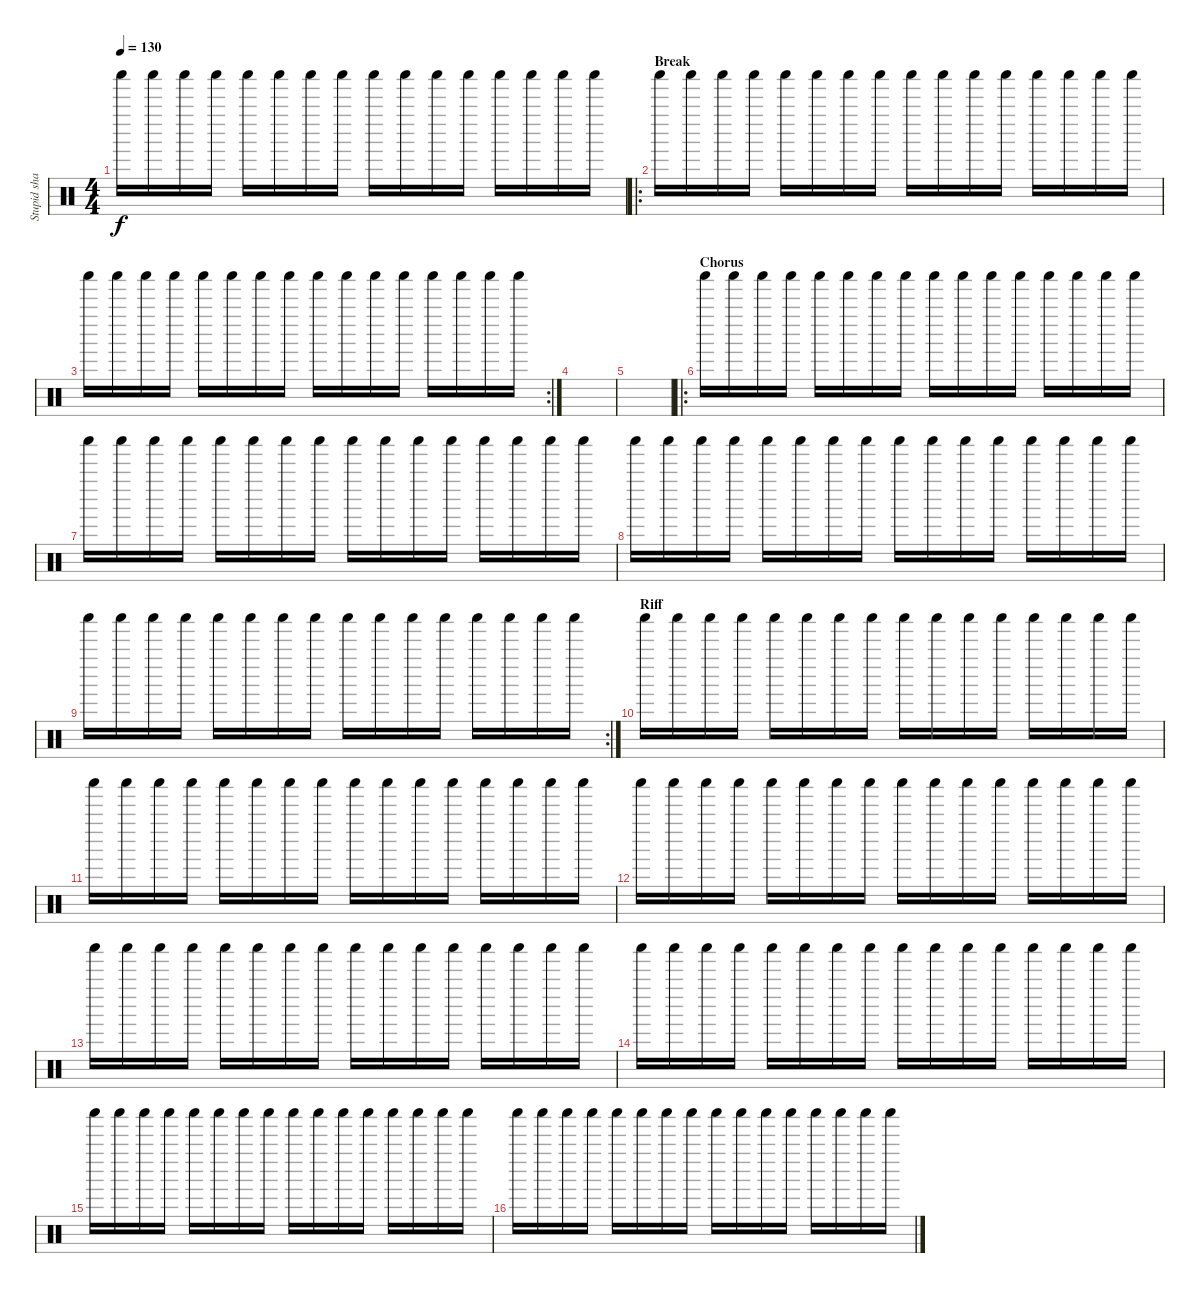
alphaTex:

\track ("Stupid shaker" "Stupid sha") {instrument percussion}
\staff {score}
\articulation defaults
\ts (4 4)
\tempo 130
\clef neutral
\ks c "Shaker (hit)".16{dy f} "Shaker (hit)".16 "Shaker (hit)".16 "Shaker (hit)".16 "Shaker (hit)".16 "Shaker (hit)".16 "Shaker (hit)".16 "Shaker (hit)".16 "Shaker (hit)".16 "Shaker (hit)".16 "Shaker (hit)".16 "Shaker (hit)".16 "Shaker (hit)".16 "Shaker (hit)".16 "Shaker (hit)".16 "Shaker (hit)".16
|
\ro
\section ("" "Break")
"Shaker (hit)".16 "Shaker (hit)".16 "Shaker (hit)".16 "Shaker (hit)".16 "Shaker (hit)".16 "Shaker (hit)".16 "Shaker (hit)".16 "Shaker (hit)".16 "Shaker (hit)".16 "Shaker (hit)".16 "Shaker (hit)".16 "Shaker (hit)".16 "Shaker (hit)".16 "Shaker (hit)".16 "Shaker (hit)".16 "Shaker (hit)".16 |
\rc 2 "Shaker (hit)".16 "Shaker (hit)".16 "Shaker (hit)".16 "Shaker (hit)".16 "Shaker (hit)".16 "Shaker (hit)".16 "Shaker (hit)".16 "Shaker (hit)".16 "Shaker (hit)".16 "Shaker (hit)".16 "Shaker (hit)".16 "Shaker (hit)".16 "Shaker (hit)".16 "Shaker (hit)".16 "Shaker (hit)".16 "Shaker (hit)".16
|
|
|
\ro
\section ("" "Chorus")
"Shaker (hit)".16 "Shaker (hit)".16 "Shaker (hit)".16 "Shaker (hit)".16 "Shaker (hit)".16 "Shaker (hit)".16 "Shaker (hit)".16 "Shaker (hit)".16 "Shaker (hit)".16 "Shaker (hit)".16 "Shaker (hit)".16 "Shaker (hit)".16 "Shaker (hit)".16 "Shaker (hit)".16 "Shaker (hit)".16 "Shaker (hit)".16 |
"Shaker (hit)".16 "Shaker (hit)".16 "Shaker (hit)".16 "Shaker (hit)".16 "Shaker (hit)".16 "Shaker (hit)".16 "Shaker (hit)".16 "Shaker (hit)".16 "Shaker (hit)".16 "Shaker (hit)".16 "Shaker (hit)".16 "Shaker (hit)".16 "Shaker (hit)".16 "Shaker (hit)".16 "Shaker (hit)".16 "Shaker (hit)".16 |
"Shaker (hit)".16 "Shaker (hit)".16 "Shaker (hit)".16 "Shaker (hit)".16 "Shaker (hit)".16 "Shaker (hit)".16 "Shaker (hit)".16 "Shaker (hit)".16 "Shaker (hit)".16 "Shaker (hit)".16 "Shaker (hit)".16 "Shaker (hit)".16 "Shaker (hit)".16 "Shaker (hit)".16 "Shaker (hit)".16 "Shaker (hit)".16 |
\rc 2 "Shaker (hit)".16 "Shaker (hit)".16 "Shaker (hit)".16 "Shaker (hit)".16 "Shaker (hit)".16 "Shaker (hit)".16 "Shaker (hit)".16 "Shaker (hit)".16 "Shaker (hit)".16 "Shaker (hit)".16 "Shaker (hit)".16 "Shaker (hit)".16 "Shaker (hit)".16 "Shaker (hit)".16 "Shaker (hit)".16 "Shaker (hit)".16
|
\section ("" "Riff")
"Shaker (hit)".16 "Shaker (hit)".16 "Shaker (hit)".16 "Shaker (hit)".16 "Shaker (hit)".16 "Shaker (hit)".16 "Shaker (hit)".16 "Shaker (hit)".16 "Shaker (hit)".16 "Shaker (hit)".16 "Shaker (hit)".16 "Shaker (hit)".16 "Shaker (hit)".16 "Shaker (hit)".16 "Shaker (hit)".16 "Shaker (hit)".16 |
"Shaker (hit)".16 "Shaker (hit)".16 "Shaker (hit)".16 "Shaker (hit)".16 "Shaker (hit)".16 "Shaker (hit)".16 "Shaker (hit)".16 "Shaker (hit)".16 "Shaker (hit)".16 "Shaker (hit)".16 "Shaker (hit)".16 "Shaker (hit)".16 "Shaker (hit)".16 "Shaker (hit)".16 "Shaker (hit)".16 "Shaker (hit)".16 |
"Shaker (hit)".16 "Shaker (hit)".16 "Shaker (hit)".16 "Shaker (hit)".16 "Shaker (hit)".16 "Shaker (hit)".16 "Shaker (hit)".16 "Shaker (hit)".16 "Shaker (hit)".16 "Shaker (hit)".16 "Shaker (hit)".16 "Shaker (hit)".16 "Shaker (hit)".16 "Shaker (hit)".16 "Shaker (hit)".16 "Shaker (hit)".16 |
"Shaker (hit)".16 "Shaker (hit)".16 "Shaker (hit)".16 "Shaker (hit)".16 "Shaker (hit)".16 "Shaker (hit)".16 "Shaker (hit)".16 "Shaker (hit)".16 "Shaker (hit)".16 "Shaker (hit)".16 "Shaker (hit)".16 "Shaker (hit)".16 "Shaker (hit)".16 "Shaker (hit)".16 "Shaker (hit)".16 "Shaker (hit)".16 |
"Shaker (hit)".16 "Shaker (hit)".16 "Shaker (hit)".16 "Shaker (hit)".16 "Shaker (hit)".16 "Shaker (hit)".16 "Shaker (hit)".16 "Shaker (hit)".16 "Shaker (hit)".16 "Shaker (hit)".16 "Shaker (hit)".16 "Shaker (hit)".16 "Shaker (hit)".16 "Shaker (hit)".16 "Shaker (hit)".16 "Shaker (hit)".16 |
"Shaker (hit)".16 "Shaker (hit)".16 "Shaker (hit)".16 "Shaker (hit)".16 "Shaker (hit)".16 "Shaker (hit)".16 "Shaker (hit)".16 "Shaker (hit)".16 "Shaker (hit)".16 "Shaker (hit)".16 "Shaker (hit)".16 "Shaker (hit)".16 "Shaker (hit)".16 "Shaker (hit)".16 "Shaker (hit)".16 "Shaker (hit)".16 |
"Shaker (hit)".16 "Shaker (hit)".16 "Shaker (hit)".16 "Shaker (hit)".16 "Shaker (hit)".16 "Shaker (hit)".16 "Shaker (hit)".16 "Shaker (hit)".16 "Shaker (hit)".16 "Shaker (hit)".16 "Shaker (hit)".16 "Shaker (hit)".16 "Shaker (hit)".16 "Shaker (hit)".16 "Shaker (hit)".16 "Shaker (hit)".16
